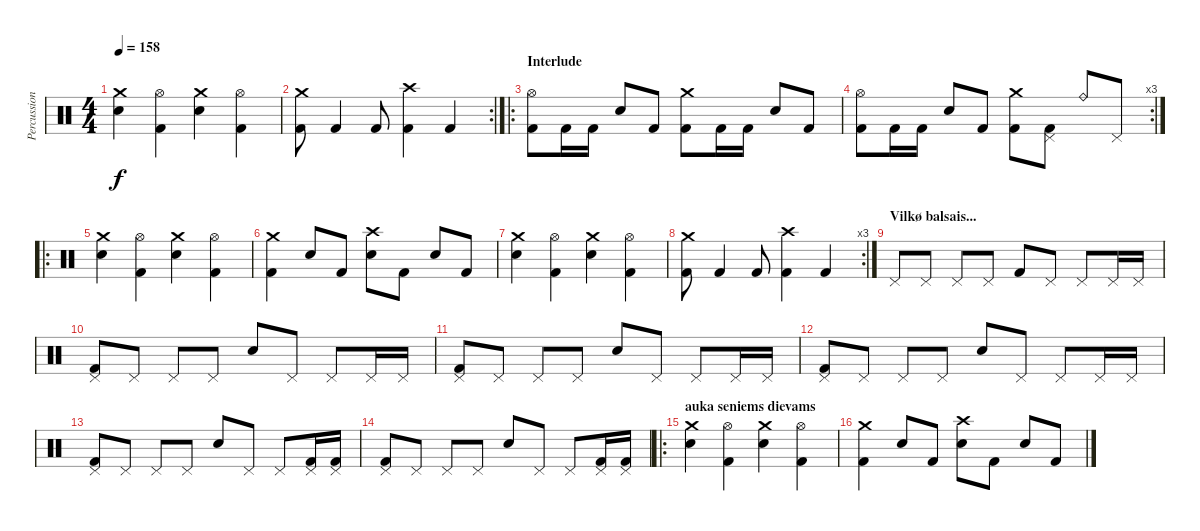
\track ("Percussion" "Percussion") {instrument percussion}
\staff {score}
\articulation defaults
\ts (4 4)
\tempo 158
\clef neutral
\ks c
("Crash medium (hit)" "Snare (hit) 2").4{dy f} ("Hi-Hat (open)" "Kick (hit) 2").4 ("Crash medium (hit)" "Snare (hit) 2").4 ("Hi-Hat (open)" "Kick (hit) 2").4 |
\rc 2
("Crash medium (hit)" "Kick (hit) 2").8 "Kick (hit) 2".4 "Kick (hit) 2".8 ("Crash high (hit)" "Kick (hit) 2").4 "Kick (hit) 2".4 |
\ro
\section ("" "Interlude")
("Hi-Hat (open)" "Kick (hit) 2").8 "Kick (hit) 2".16 "Kick (hit) 2".16 "Snare (hit) 2".8 "Kick (hit) 2".8 ("Crash medium (hit)" "Kick (hit) 2").8 "Kick (hit) 2".16 "Kick (hit) 2".16 "Snare (hit) 2".8 "Kick (hit) 2".8 |
\rc 3
("Hi-Hat (open)" "Kick (hit) 2").8 "Kick (hit) 2".16 "Kick (hit) 2".16 "Snare (hit) 2".8 "Kick (hit) 2".8 ("Crash medium (hit)" "Kick (hit) 2").8 ("Pedal Hi-Hat (hit)" "Kick (hit) 2").8 "Ride (bell)".8 "Pedal Hi-Hat (hit)".8 |
\ro
("Crash medium (hit)" "Snare (hit) 2").4 ("Hi-Hat (open)" "Kick (hit) 2").4 ("Crash medium (hit)" "Snare (hit) 2").4 ("Hi-Hat (open)" "Kick (hit) 2").4 |
("Crash medium (hit)" "Kick (hit) 2").4 "Snare (hit) 2".8 "Kick (hit) 2".8 ("Crash high (hit)" "Snare (hit) 2").8 "Kick (hit) 2".8 "Snare (hit) 2".8 "Kick (hit) 2".8 |
("Crash medium (hit)" "Snare (hit) 2").4 ("Hi-Hat (open)" "Kick (hit) 2").4 ("Crash medium (hit)" "Snare (hit) 2").4 ("Hi-Hat (open)" "Kick (hit) 2").4 |
\rc 3
("Crash medium (hit)" "Kick (hit) 2").8 "Kick (hit) 2".4 "Kick (hit) 2".8 ("Crash high (hit)" "Kick (hit) 2").4 "Kick (hit) 2".4 |
\section ("" "Vilkø balsais...")
"Pedal Hi-Hat (hit)".8 "Pedal Hi-Hat (hit)".8 "Pedal Hi-Hat (hit)".8 "Pedal Hi-Hat (hit)".8 "Kick (hit) 2".8 "Pedal Hi-Hat (hit)".8 "Pedal Hi-Hat (hit)".8 "Pedal Hi-Hat (hit)".16 "Pedal Hi-Hat (hit)".16 |
("Pedal Hi-Hat (hit)" "Kick (hit) 2").8 "Pedal Hi-Hat (hit)".8 "Pedal Hi-Hat (hit)".8 "Pedal Hi-Hat (hit)".8 "Snare (hit) 2".8 "Pedal Hi-Hat (hit)".8 "Pedal Hi-Hat (hit)".8 "Pedal Hi-Hat (hit)".16 "Pedal Hi-Hat (hit)".16 |
("Pedal Hi-Hat (hit)" "Kick (hit) 2").8 "Pedal Hi-Hat (hit)".8 "Pedal Hi-Hat (hit)".8 "Pedal Hi-Hat (hit)".8 "Snare (hit) 2".8 "Pedal Hi-Hat (hit)".8 "Pedal Hi-Hat (hit)".8 "Pedal Hi-Hat (hit)".16 "Pedal Hi-Hat (hit)".16 |
("Pedal Hi-Hat (hit)" "Kick (hit) 2").8 "Pedal Hi-Hat (hit)".8 "Pedal Hi-Hat (hit)".8 "Pedal Hi-Hat (hit)".8 "Snare (hit) 2".8 "Pedal Hi-Hat (hit)".8 "Pedal Hi-Hat (hit)".8 "Pedal Hi-Hat (hit)".16 "Pedal Hi-Hat (hit)".16 |
("Pedal Hi-Hat (hit)" "Kick (hit) 2").8 "Pedal Hi-Hat (hit)".8 "Pedal Hi-Hat (hit)".8 "Pedal Hi-Hat (hit)".8 "Snare (hit) 2".8 "Pedal Hi-Hat (hit)".8 "Pedal Hi-Hat (hit)".8 ("Pedal Hi-Hat (hit)" "Kick (hit) 2").16 ("Pedal Hi-Hat (hit)" "Kick (hit) 2").16 |
("Pedal Hi-Hat (hit)" "Kick (hit) 2").8 "Pedal Hi-Hat (hit)".8 "Pedal Hi-Hat (hit)".8 "Pedal Hi-Hat (hit)".8 "Snare (hit) 2".8 "Pedal Hi-Hat (hit)".8 "Pedal Hi-Hat (hit)".8 ("Pedal Hi-Hat (hit)" "Kick (hit) 2").16 ("Pedal Hi-Hat (hit)" "Kick (hit) 2").16 |
\ro
\section ("" "auka seniems dievams")
("Crash medium (hit)" "Snare (hit) 2").4 ("Hi-Hat (open)" "Kick (hit) 2").4 ("Crash medium (hit)" "Snare (hit) 2").4 ("Hi-Hat (open)" "Kick (hit) 2").4 |
("Crash medium (hit)" "Kick (hit) 2").4 "Snare (hit) 2".8 "Kick (hit) 2".8 ("Crash high (hit)" "Snare (hit) 2").8 "Kick (hit) 2".8 "Snare (hit) 2".8 "Kick (hit) 2".8
